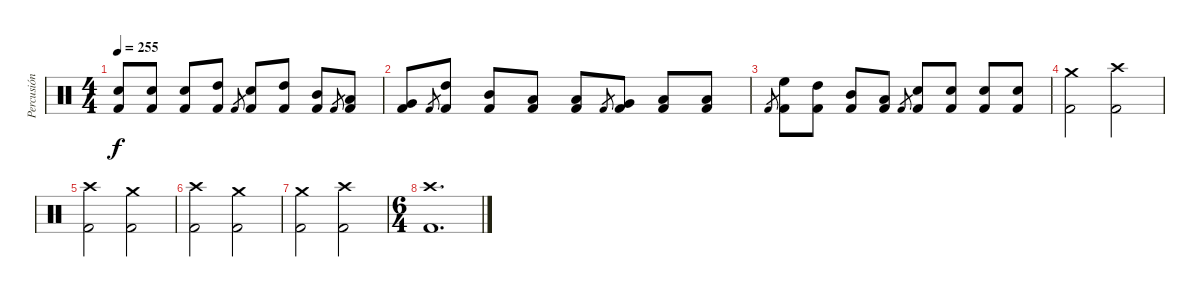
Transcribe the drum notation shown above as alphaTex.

\track ("Percusión" "Percusión") {instrument percussion}
\staff {score}
\articulation defaults
\ts (4 4)
\tempo 255
\clef neutral
\ks c
("Kick (hit) 2" "Electric Snare (hit)").8{dy f} ("Kick (hit) 2" "Electric Snare (hit)").8 ("Kick (hit) 2" "Electric Snare (hit)").8 ("Kick (hit) 2" "High Tom (hit)").8 "Kick (hit) 2".8{gr} ("Kick (hit) 2" "Electric Snare (hit)").8 ("Kick (hit) 2" "High Tom (hit)").8 ("Kick (hit) 2" "Mid Tom (hit)").8 "Kick (hit) 2".8{gr} ("Kick (hit) 2" "Low Tom (hit)").8 |
("Kick (hit) 2" "Very Low Tom (hit)").8 "Kick (hit) 2".8{gr} ("Kick (hit) 2" "High Tom (hit)").8 ("Kick (hit) 2" "Mid Tom (hit)").8 ("Kick (hit) 2" "Low Tom (hit)").8 ("Kick (hit) 2" "Low Tom (hit)").8 "Kick (hit) 2".8{gr} ("Kick (hit) 2" "Very Low Tom (hit)").8 ("Kick (hit) 2" "Low Floor Tom (hit)").8 ("Kick (hit) 2" "Low Floor Tom (hit)").8 |
"Kick (hit) 2".8{gr} ("Kick (hit) 2" "High Floor Tom (hit)").8 ("Kick (hit) 2" "High Tom (hit)").8 ("Kick (hit) 2" "Mid Tom (hit)").8 ("Kick (hit) 2" "Low Tom (hit)").8 "Kick (hit) 2".8{gr} ("Kick (hit) 2" "Electric Snare (hit)").8 ("Kick (hit) 2" "Electric Snare (hit)").8 ("Kick (hit) 2" "Electric Snare (hit)").8 ("Kick (hit) 2" "Electric Snare (hit)").8 |
("Kick (hit) 2" "Crash medium (hit)").2 ("Kick (hit) 2" "Crash high (hit)").2 |
("Kick (hit) 2" "Crash high (hit)").2 ("Kick (hit) 2" "Crash medium (hit)").2 |
("Kick (hit) 2" "Crash high (hit)").2 ("Kick (hit) 2" "Crash medium (hit)").2 |
("Kick (hit) 2" "Crash medium (hit)").2 ("Kick (hit) 2" "Crash high (hit)").2 |
\ts (6 4)
("Kick (hit) 2" "Crash high (hit)").1{d}
